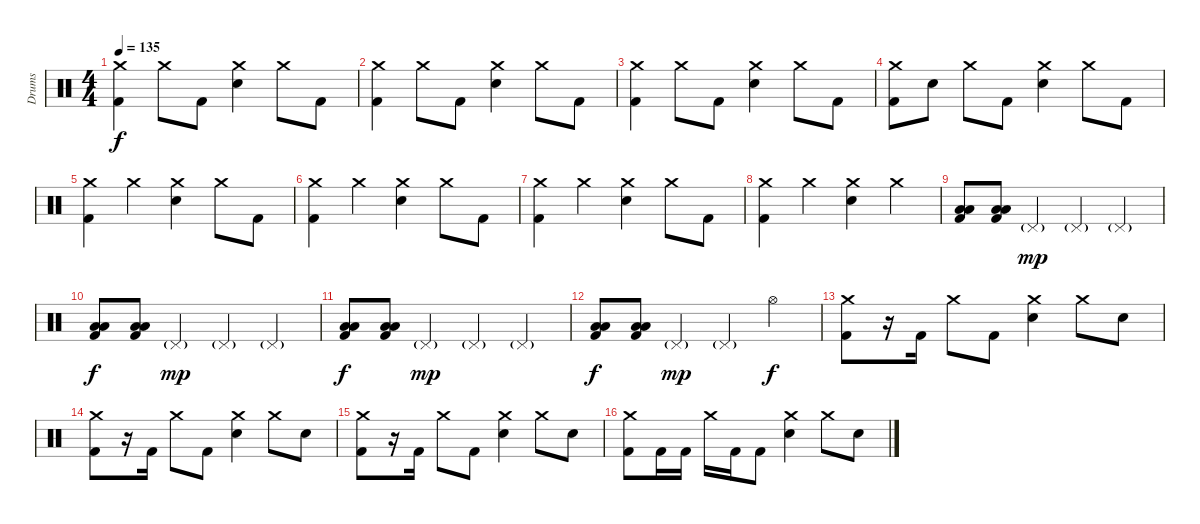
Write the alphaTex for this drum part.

\track ("Drums" "Drums") {instrument percussion}
\staff {score}
\articulation defaults
\ts (4 4)
\tempo 135
\clef neutral
\ks c
("Crash medium (hit)" "Kick (hit) 2").4{dy f} "Crash medium (hit)".8 "Kick (hit) 2".8 ("Crash medium (hit)" "Electric Snare (hit)").4 "Crash medium (hit)".8 "Kick (hit) 2".8 |
("Crash medium (hit)" "Kick (hit) 2").4 "Crash medium (hit)".8 "Kick (hit) 2".8 ("Crash medium (hit)" "Electric Snare (hit)").4 "Crash medium (hit)".8 "Kick (hit) 2".8 |
("Crash medium (hit)" "Kick (hit) 2").4 "Crash medium (hit)".8 "Kick (hit) 2".8 ("Crash medium (hit)" "Electric Snare (hit)").4 "Crash medium (hit)".8 "Kick (hit) 2".8 |
("Crash medium (hit)" "Kick (hit) 2").8 "Electric Snare (hit)".8 "Crash medium (hit)".8 "Kick (hit) 2".8 ("Crash medium (hit)" "Electric Snare (hit)").4 "Crash medium (hit)".8 "Kick (hit) 2".8 |
("Crash medium (hit)" "Kick (hit) 2").4 "Crash medium (hit)".4 ("Crash medium (hit)" "Electric Snare (hit)").4 "Crash medium (hit)".8 "Kick (hit) 2".8 |
("Crash medium (hit)" "Kick (hit) 2").4 "Crash medium (hit)".4 ("Crash medium (hit)" "Electric Snare (hit)").4 "Crash medium (hit)".8 "Kick (hit) 2".8 |
("Crash medium (hit)" "Kick (hit) 2").4 "Crash medium (hit)".4 ("Crash medium (hit)" "Electric Snare (hit)").4 "Crash medium (hit)".8 "Kick (hit) 2".8 |
("Crash medium (hit)" "Kick (hit) 2").4 "Crash medium (hit)".4 ("Crash medium (hit)" "Electric Snare (hit)").4 "Crash medium (hit)".4 |
("Low Tom (hit)" "Low Floor Tom (hit)" "Kick (hit) 2").8 ("Low Tom (hit)" "Low Floor Tom (hit)" "Kick (hit) 2").8 "Pedal Hi-Hat (hit)"{g}.4{dy mp} "Pedal Hi-Hat (hit)"{g}.4 "Pedal Hi-Hat (hit)"{g}.4 |
("Low Tom (hit)" "Low Floor Tom (hit)" "Kick (hit) 2").8{dy f} ("Low Tom (hit)" "Low Floor Tom (hit)" "Kick (hit) 2").8 "Pedal Hi-Hat (hit)"{g}.4{dy mp} "Pedal Hi-Hat (hit)"{g}.4 "Pedal Hi-Hat (hit)"{g}.4 |
("Low Tom (hit)" "Low Floor Tom (hit)" "Kick (hit) 2").8{dy f} ("Low Tom (hit)" "Low Floor Tom (hit)" "Kick (hit) 2").8 "Pedal Hi-Hat (hit)"{g}.4{dy mp} "Pedal Hi-Hat (hit)"{g}.4 "Pedal Hi-Hat (hit)"{g}.4 |
("Low Tom (hit)" "Low Floor Tom (hit)" "Kick (hit) 2").8{dy f} ("Low Tom (hit)" "Low Floor Tom (hit)" "Kick (hit) 2").8 "Pedal Hi-Hat (hit)"{g}.4{dy mp} "Pedal Hi-Hat (hit)"{g}.4 "Hi-Hat (open)".4{dy f} |
("Crash medium (hit)" "Kick (hit) 2").8 r.16 "Kick (hit) 2".16 "Crash medium (hit)".8 "Kick (hit) 2".8 ("Crash medium (hit)" "Electric Snare (hit)").4 "Crash medium (hit)".8 "Electric Snare (hit)".8 |
("Crash medium (hit)" "Kick (hit) 2").8 r.16 "Kick (hit) 2".16 "Crash medium (hit)".8 "Kick (hit) 2".8 ("Crash medium (hit)" "Electric Snare (hit)").4 "Crash medium (hit)".8 "Electric Snare (hit)".8 |
("Crash medium (hit)" "Kick (hit) 2").8 r.16 "Kick (hit) 2".16 "Crash medium (hit)".8 "Kick (hit) 2".8 ("Crash medium (hit)" "Electric Snare (hit)").4 "Crash medium (hit)".8 "Electric Snare (hit)".8 |
("Crash medium (hit)" "Kick (hit) 2").8 "Kick (hit) 2".16 "Kick (hit) 2".16 "Crash medium (hit)".16 "Kick (hit) 2".16 "Kick (hit) 2".8 ("Crash medium (hit)" "Electric Snare (hit)").4 "Crash medium (hit)".8 "Electric Snare (hit)".8
